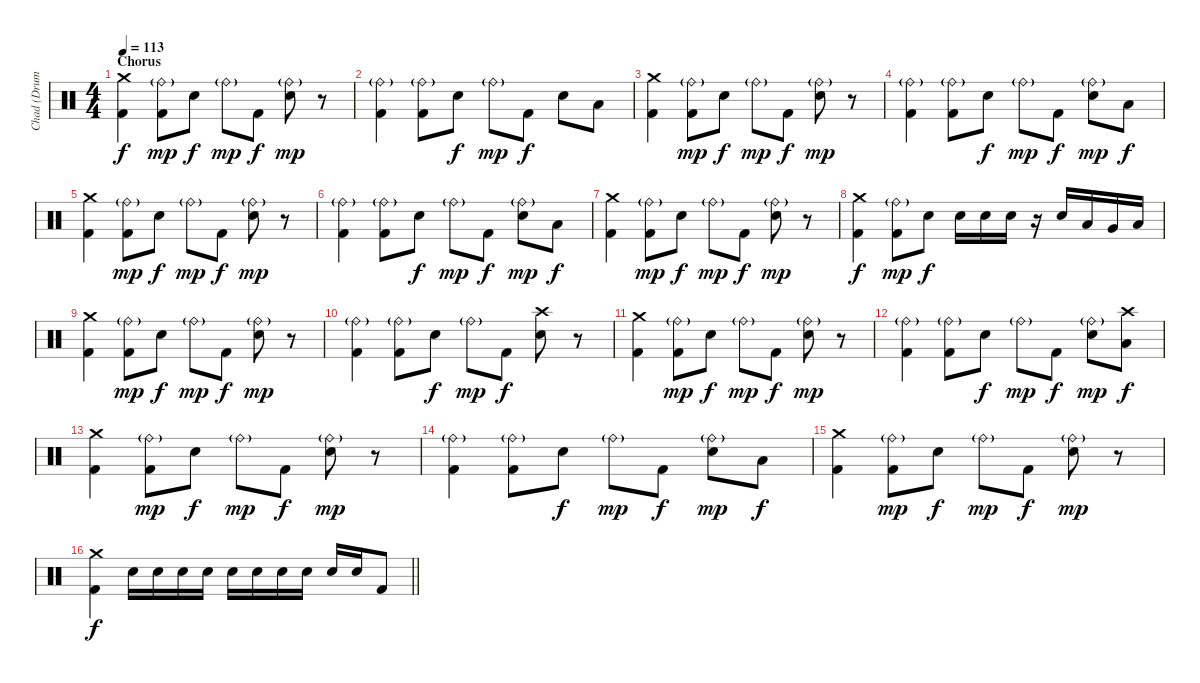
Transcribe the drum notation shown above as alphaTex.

\track ("Chad (Drums)" "Chad (Drum") {instrument percussion}
\staff {score}
\articulation defaults
\ts (4 4)
\section ("" "Chorus")
\tempo 113
\clef neutral
\ks c
("Crash medium (hit)" "Kick (hit) 2").4{dy f} ("Ride (bell)"{g} "Kick (hit) 2").8{dy mp} "Snare (hit) 2".8{dy f} "Ride (bell)"{g}.8{dy mp} "Kick (hit) 2".8{dy f} ("Ride (bell)"{g} "Snare (hit) 2").8{dy mp} r.8 |
("Ride (bell)"{g} "Kick (hit) 2").4 ("Ride (bell)"{g} "Kick (hit) 2").8 "Snare (hit) 2".8{dy f} "Ride (bell)"{g}.8{dy mp} "Kick (hit) 2".8{dy f} "Snare (hit) 2".8 "Low Floor Tom (hit)".8 |
("Crash medium (hit)" "Kick (hit) 2").4 ("Ride (bell)"{g} "Kick (hit) 2").8{dy mp} "Snare (hit) 2".8{dy f} "Ride (bell)"{g}.8{dy mp} "Kick (hit) 2".8{dy f} ("Ride (bell)"{g} "Snare (hit) 2").8{dy mp} r.8 |
("Ride (bell)"{g} "Kick (hit) 2").4 ("Ride (bell)"{g} "Kick (hit) 2").8 "Snare (hit) 2".8{dy f} "Ride (bell)"{g}.8{dy mp} "Kick (hit) 2".8{dy f} ("Ride (bell)"{g} "Snare (hit) 2").8{dy mp} "Low Floor Tom (hit)".8{dy f} |
("Crash medium (hit)" "Kick (hit) 2").4 ("Ride (bell)"{g} "Kick (hit) 2").8{dy mp} "Snare (hit) 2".8{dy f} "Ride (bell)"{g}.8{dy mp} "Kick (hit) 2".8{dy f} ("Ride (bell)"{g} "Snare (hit) 2").8{dy mp} r.8 |
("Ride (bell)"{g} "Kick (hit) 2").4 ("Ride (bell)"{g} "Kick (hit) 2").8 "Snare (hit) 2".8{dy f} "Ride (bell)"{g}.8{dy mp} "Kick (hit) 2".8{dy f} ("Ride (bell)"{g} "Snare (hit) 2").8{dy mp} "Low Floor Tom (hit)".8{dy f} |
("Crash medium (hit)" "Kick (hit) 2").4 ("Ride (bell)"{g} "Kick (hit) 2").8{dy mp} "Snare (hit) 2".8{dy f} "Ride (bell)"{g}.8{dy mp} "Kick (hit) 2".8{dy f} ("Ride (bell)"{g} "Snare (hit) 2").8{dy mp} r.8 |
("Crash medium (hit)" "Kick (hit) 2").4{dy f} ("Ride (bell)"{g} "Kick (hit) 2").8{dy mp} "Snare (hit) 2".8{dy f} "Snare (hit) 2".16 "Snare (hit) 2".16 "Snare (hit) 2".16 r.16 "Snare (hit) 2".16 "Low Tom (hit)".16 "Very Low Tom (hit)".16 "Low Floor Tom (hit)".16 |
("Crash medium (hit)" "Kick (hit) 2").4 ("Ride (bell)"{g} "Kick (hit) 2").8{dy mp} "Snare (hit) 2".8{dy f} "Ride (bell)"{g}.8{dy mp} "Kick (hit) 2".8{dy f} ("Ride (bell)"{g} "Snare (hit) 2").8{dy mp} r.8 |
("Ride (bell)"{g} "Kick (hit) 2").4 ("Ride (bell)"{g} "Kick (hit) 2").8 "Snare (hit) 2".8{dy f} "Ride (bell)"{g}.8{dy mp} "Kick (hit) 2".8{dy f} ("Crash high (hit)" "Snare (hit) 2").8 r.8 |
("Crash medium (hit)" "Kick (hit) 2").4 ("Ride (bell)"{g} "Kick (hit) 2").8{dy mp} "Snare (hit) 2".8{dy f} "Ride (bell)"{g}.8{dy mp} "Kick (hit) 2".8{dy f} ("Ride (bell)"{g} "Snare (hit) 2").8{dy mp} r.8 |
("Ride (bell)"{g} "Kick (hit) 2").4 ("Ride (bell)"{g} "Kick (hit) 2").8 "Snare (hit) 2".8{dy f} "Ride (bell)"{g}.8{dy mp} "Kick (hit) 2".8{dy f} ("Ride (bell)"{g} "Snare (hit) 2").8{dy mp} ("Crash high (hit)" "Low Floor Tom (hit)").8{dy f} |
("Crash medium (hit)" "Kick (hit) 2").4 ("Ride (bell)"{g} "Kick (hit) 2").8{dy mp} "Snare (hit) 2".8{dy f} "Ride (bell)"{g}.8{dy mp} "Kick (hit) 2".8{dy f} ("Ride (bell)"{g} "Snare (hit) 2").8{dy mp} r.8 |
("Ride (bell)"{g} "Kick (hit) 2").4 ("Ride (bell)"{g} "Kick (hit) 2").8 "Snare (hit) 2".8{dy f} "Ride (bell)"{g}.8{dy mp} "Kick (hit) 2".8{dy f} ("Ride (bell)"{g} "Snare (hit) 2").8{dy mp} "Low Floor Tom (hit)".8{dy f} |
("Crash medium (hit)" "Kick (hit) 2").4 ("Ride (bell)"{g} "Kick (hit) 2").8{dy mp} "Snare (hit) 2".8{dy f} "Ride (bell)"{g}.8{dy mp} "Kick (hit) 2".8{dy f} ("Ride (bell)"{g} "Snare (hit) 2").8{dy mp} r.8 |
\barLineRight lightlight
("Crash medium (hit)" "Kick (hit) 2").4{dy f} "Electric Snare (hit)".16 "Electric Snare (hit)".16 "Electric Snare (hit)".16 "Electric Snare (hit)".16 "Electric Snare (hit)".16 "Electric Snare (hit)".16 "Electric Snare (hit)".16 "Electric Snare (hit)".16 "Electric Snare (hit)".16 "Electric Snare (hit)".16 "Kick (hit) 2".8
